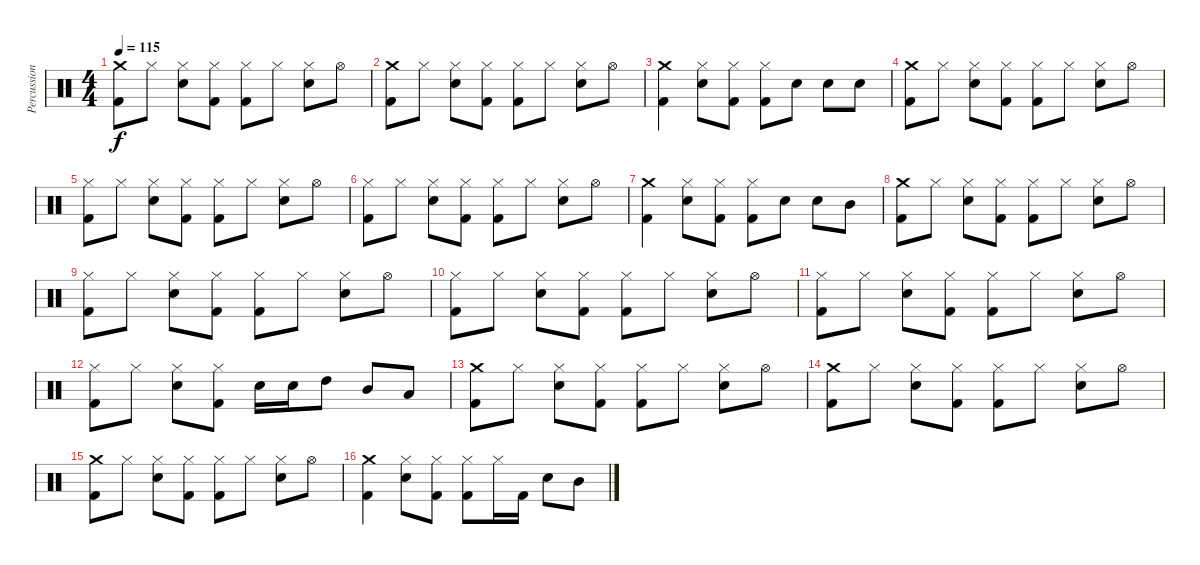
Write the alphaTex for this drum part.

\track ("Percussion" "Percussion") {instrument percussion}
\staff {score}
\articulation defaults
\ts (4 4)
\tempo 115
\clef neutral
\ks c
("Crash medium (hit)" "Kick (hit) 2").8{dy f} "Hi-Hat (closed)".8 ("Hi-Hat (closed)" "Electric Snare (hit)").8 ("Hi-Hat (closed)" "Kick (hit) 2").8 ("Hi-Hat (closed)" "Kick (hit) 2").8 "Hi-Hat (closed)".8 ("Hi-Hat (closed)" "Electric Snare (hit)").8 "Hi-Hat (open)".8 |
("Crash medium (hit)" "Kick (hit) 2").8 "Hi-Hat (closed)".8 ("Hi-Hat (closed)" "Electric Snare (hit)").8 ("Hi-Hat (closed)" "Kick (hit) 2").8 ("Hi-Hat (closed)" "Kick (hit) 2").8 "Hi-Hat (closed)".8 ("Hi-Hat (closed)" "Electric Snare (hit)").8 "Hi-Hat (open)".8 |
("Crash medium (hit)" "Kick (hit) 2").4 ("Hi-Hat (closed)" "Electric Snare (hit)").8 ("Hi-Hat (closed)" "Kick (hit) 2").8 ("Hi-Hat (closed)" "Kick (hit) 2").8 "Electric Snare (hit)".8 "Electric Snare (hit)".8 "Electric Snare (hit)".8 |
("Crash medium (hit)" "Kick (hit) 2").8 "Hi-Hat (closed)".8 ("Hi-Hat (closed)" "Electric Snare (hit)").8 ("Hi-Hat (closed)" "Kick (hit) 2").8 ("Hi-Hat (closed)" "Kick (hit) 2").8 "Hi-Hat (closed)".8 ("Hi-Hat (closed)" "Electric Snare (hit)").8 "Hi-Hat (open)".8 |
("Hi-Hat (closed)" "Kick (hit) 2").8 "Hi-Hat (closed)".8 ("Hi-Hat (closed)" "Electric Snare (hit)").8 ("Hi-Hat (closed)" "Kick (hit) 2").8 ("Hi-Hat (closed)" "Kick (hit) 2").8 "Hi-Hat (closed)".8 ("Hi-Hat (closed)" "Electric Snare (hit)").8 "Hi-Hat (open)".8 |
("Hi-Hat (closed)" "Kick (hit) 2").8 "Hi-Hat (closed)".8 ("Hi-Hat (closed)" "Electric Snare (hit)").8 ("Hi-Hat (closed)" "Kick (hit) 2").8 ("Hi-Hat (closed)" "Kick (hit) 2").8 "Hi-Hat (closed)".8 ("Hi-Hat (closed)" "Electric Snare (hit)").8 "Hi-Hat (open)".8 |
("Crash medium (hit)" "Kick (hit) 2").4 ("Hi-Hat (closed)" "Electric Snare (hit)").8 ("Hi-Hat (closed)" "Kick (hit) 2").8 ("Hi-Hat (closed)" "Kick (hit) 2").8 "Electric Snare (hit)".8 "Electric Snare (hit)".8 "Mid Tom (hit)".8 |
("Crash medium (hit)" "Kick (hit) 2").8 "Hi-Hat (closed)".8 ("Hi-Hat (closed)" "Electric Snare (hit)").8 ("Hi-Hat (closed)" "Kick (hit) 2").8 ("Hi-Hat (closed)" "Kick (hit) 2").8 "Hi-Hat (closed)".8 ("Hi-Hat (closed)" "Electric Snare (hit)").8 "Hi-Hat (open)".8 |
("Hi-Hat (closed)" "Kick (hit) 2").8 "Hi-Hat (closed)".8 ("Hi-Hat (closed)" "Electric Snare (hit)").8 ("Hi-Hat (closed)" "Kick (hit) 2").8 ("Hi-Hat (closed)" "Kick (hit) 2").8 "Hi-Hat (closed)".8 ("Hi-Hat (closed)" "Electric Snare (hit)").8 "Hi-Hat (open)".8 |
("Hi-Hat (closed)" "Kick (hit) 2").8 "Hi-Hat (closed)".8 ("Hi-Hat (closed)" "Electric Snare (hit)").8 ("Hi-Hat (closed)" "Kick (hit) 2").8 ("Hi-Hat (closed)" "Kick (hit) 2").8 "Hi-Hat (closed)".8 ("Hi-Hat (closed)" "Electric Snare (hit)").8 "Hi-Hat (open)".8 |
("Hi-Hat (closed)" "Kick (hit) 2").8 "Hi-Hat (closed)".8 ("Hi-Hat (closed)" "Electric Snare (hit)").8 ("Hi-Hat (closed)" "Kick (hit) 2").8 ("Hi-Hat (closed)" "Kick (hit) 2").8 "Hi-Hat (closed)".8 ("Hi-Hat (closed)" "Electric Snare (hit)").8 "Hi-Hat (open)".8 |
("Hi-Hat (closed)" "Kick (hit) 2").8 "Hi-Hat (closed)".8 ("Hi-Hat (closed)" "Electric Snare (hit)").8 ("Hi-Hat (closed)" "Kick (hit) 2").8 "Electric Snare (hit)".16 "Electric Snare (hit)".16 "High Tom (hit)".8 "Mid Tom (hit)".8 "Low Tom (hit)".8 |
("Crash medium (hit)" "Kick (hit) 2").8 "Hi-Hat (closed)".8 ("Hi-Hat (closed)" "Electric Snare (hit)").8 ("Hi-Hat (closed)" "Kick (hit) 2").8 ("Hi-Hat (closed)" "Kick (hit) 2").8 "Hi-Hat (closed)".8 ("Hi-Hat (closed)" "Electric Snare (hit)").8 "Hi-Hat (open)".8 |
("Crash medium (hit)" "Kick (hit) 2").8 "Hi-Hat (closed)".8 ("Hi-Hat (closed)" "Electric Snare (hit)").8 ("Hi-Hat (closed)" "Kick (hit) 2").8 ("Hi-Hat (closed)" "Kick (hit) 2").8 "Hi-Hat (closed)".8 ("Hi-Hat (closed)" "Electric Snare (hit)").8 "Hi-Hat (open)".8 |
("Crash medium (hit)" "Kick (hit) 2").8 "Hi-Hat (closed)".8 ("Hi-Hat (closed)" "Electric Snare (hit)").8 ("Hi-Hat (closed)" "Kick (hit) 2").8 ("Hi-Hat (closed)" "Kick (hit) 2").8 "Hi-Hat (closed)".8 ("Hi-Hat (closed)" "Electric Snare (hit)").8 "Hi-Hat (open)".8 |
("Crash medium (hit)" "Kick (hit) 2").4 ("Hi-Hat (closed)" "Electric Snare (hit)").8 ("Hi-Hat (closed)" "Kick (hit) 2").8 ("Hi-Hat (closed)" "Kick (hit) 2").8 "Hi-Hat (closed)".16 "Kick (hit) 2".16 "Electric Snare (hit)".8 "Mid Tom (hit)".8
